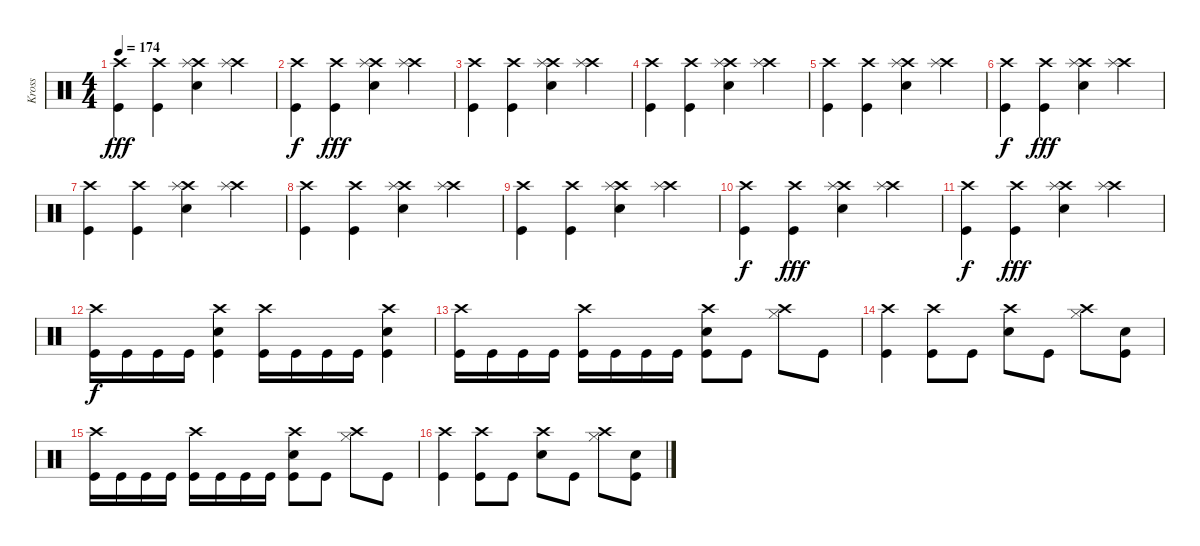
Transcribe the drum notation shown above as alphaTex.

\track ("Kross" "Kross") {instrument percussion}
\staff {score}
\articulation defaults
\ts (4 4)
\tempo 174
\clef neutral
\ks c
("Crash high (hit)" "Kick (hit)").4{dy fff} ("Crash high (hit)" "Kick (hit)").4 ("Crash high (hit)" "Splash (hit)" "Snare (hit) 2").4 ("Crash high (hit)" "Splash (hit)").4 |
("Crash high (hit)" "Kick (hit)").4{dy f} ("Crash high (hit)" "Kick (hit)").4{dy fff} ("Crash high (hit)" "Splash (hit)" "Snare (hit) 2").4 ("Crash high (hit)" "Splash (hit)").4 |
("Crash high (hit)" "Kick (hit)").4 ("Crash high (hit)" "Kick (hit)").4 ("Crash high (hit)" "Splash (hit)" "Snare (hit) 2").4 ("Crash high (hit)" "Splash (hit)").4 |
("Crash high (hit)" "Kick (hit)").4 ("Crash high (hit)" "Kick (hit)").4 ("Crash high (hit)" "Splash (hit)" "Snare (hit) 2").4 ("Crash high (hit)" "Splash (hit)").4 |
("Crash high (hit)" "Kick (hit)").4 ("Crash high (hit)" "Kick (hit)").4 ("Crash high (hit)" "Splash (hit)" "Snare (hit) 2").4 ("Crash high (hit)" "Splash (hit)").4 |
("Crash high (hit)" "Kick (hit)").4{dy f} ("Crash high (hit)" "Kick (hit)").4{dy fff} ("Crash high (hit)" "Splash (hit)" "Snare (hit) 2").4 ("Crash high (hit)" "Splash (hit)").4 |
("Crash high (hit)" "Kick (hit)").4 ("Crash high (hit)" "Kick (hit)").4 ("Crash high (hit)" "Splash (hit)" "Snare (hit) 2").4 ("Crash high (hit)" "Splash (hit)").4 |
("Crash high (hit)" "Kick (hit)").4 ("Crash high (hit)" "Kick (hit)").4 ("Crash high (hit)" "Splash (hit)" "Snare (hit) 2").4 ("Crash high (hit)" "Splash (hit)").4 |
("Crash high (hit)" "Kick (hit)").4 ("Crash high (hit)" "Kick (hit)").4 ("Crash high (hit)" "Splash (hit)" "Snare (hit) 2").4 ("Crash high (hit)" "Splash (hit)").4 |
("Crash high (hit)" "Kick (hit)").4{dy f} ("Crash high (hit)" "Kick (hit)").4{dy fff} ("Crash high (hit)" "Splash (hit)" "Snare (hit) 2").4 ("Crash high (hit)" "Splash (hit)").4 |
("Crash high (hit)" "Kick (hit)").4{dy f} ("Crash high (hit)" "Kick (hit)").4{dy fff} ("Crash high (hit)" "Splash (hit)" "Snare (hit) 2").4 ("Crash high (hit)" "Splash (hit)").4 |
("Crash high (hit)" "Kick (hit)").16{dy f} "Kick (hit)".16 "Kick (hit)".16 "Kick (hit)".16 ("Crash high (hit)" "Snare (hit) 2" "Kick (hit)").4 ("Crash high (hit)" "Kick (hit)").16 "Kick (hit)".16 "Kick (hit)".16 "Kick (hit)".16 ("Crash high (hit)" "Snare (hit) 2" "Kick (hit)").4 |
("Crash high (hit)" "Kick (hit)").16 "Kick (hit)".16 "Kick (hit)".16 "Kick (hit)".16 ("Crash high (hit)" "Kick (hit)").16 "Kick (hit)".16 "Kick (hit)".16 "Kick (hit)".16 ("Crash high (hit)" "Snare (hit) 2" "Kick (hit)").8 "Kick (hit)".8 ("Crash high (hit)" "Hi-Hat (closed)").8 "Kick (hit)".8 |
("Crash high (hit)" "Kick (hit)").4 ("Crash high (hit)" "Kick (hit)").8 "Kick (hit)".8 ("Crash high (hit)" "Snare (hit) 2").8 "Kick (hit)".8 ("Crash high (hit)" "Hi-Hat (closed)").8 ("Snare (hit) 2" "Kick (hit)").8 |
("Crash high (hit)" "Kick (hit)").16 "Kick (hit)".16 "Kick (hit)".16 "Kick (hit)".16 ("Crash high (hit)" "Kick (hit)").16 "Kick (hit)".16 "Kick (hit)".16 "Kick (hit)".16 ("Crash high (hit)" "Snare (hit) 2" "Kick (hit)").8 "Kick (hit)".8 ("Crash high (hit)" "Hi-Hat (closed)").8 "Kick (hit)".8 |
("Crash high (hit)" "Kick (hit)").4 ("Crash high (hit)" "Kick (hit)").8 "Kick (hit)".8 ("Crash high (hit)" "Snare (hit) 2").8 "Kick (hit)".8 ("Crash high (hit)" "Hi-Hat (closed)").8 ("Snare (hit) 2" "Kick (hit)").8
